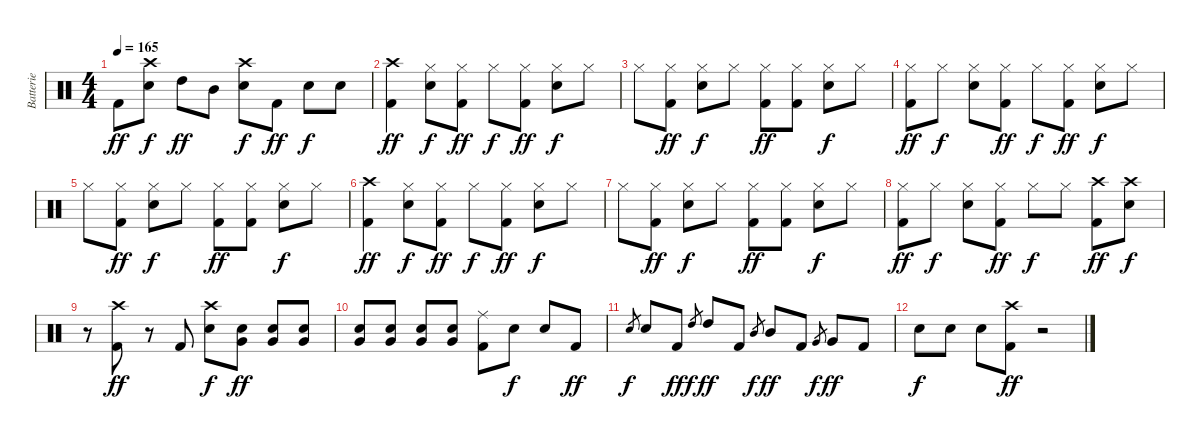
\track ("Batterie" "Batterie") {instrument percussion}
\staff {score}
\articulation defaults
\ts (4 4)
\tempo 165
\clef neutral
\ks c "Kick (hit) 2".8{dy ff}
("Crash high (hit)" "Snare (hit) 2").8{dy f} "High Tom (hit)".8{dy ff} "Mid Tom (hit)".8 ("Crash high (hit)" "Snare (hit) 2").8{dy f} "Kick (hit) 2".8{dy ff} "Snare (hit) 2".8{dy f} "Snare (hit) 2".8 |
("Crash high (hit)" "Kick (hit) 2").4{dy ff} ("Hi-Hat (closed)" "Snare (hit) 2").8{dy f} ("Hi-Hat (closed)" "Kick (hit) 2").8{dy ff} "Hi-Hat (closed)".8{dy f} ("Hi-Hat (closed)" "Kick (hit) 2").8{dy ff} ("Hi-Hat (closed)" "Snare (hit) 2").8{dy f} "Hi-Hat (closed)".8 |
"Hi-Hat (closed)".8 ("Hi-Hat (closed)" "Kick (hit) 2").8{dy ff} ("Hi-Hat (closed)" "Snare (hit) 2").8{dy f} "Hi-Hat (closed)".8 ("Hi-Hat (closed)" "Kick (hit) 2").8{dy ff} ("Hi-Hat (closed)" "Kick (hit) 2").8 ("Hi-Hat (closed)" "Snare (hit) 2").8{dy f} "Hi-Hat (closed)".8 |
("Hi-Hat (closed)" "Kick (hit) 2").8{dy ff} "Hi-Hat (closed)".8{dy f} ("Hi-Hat (closed)" "Snare (hit) 2").8 ("Hi-Hat (closed)" "Kick (hit) 2").8{dy ff} "Hi-Hat (closed)".8{dy f} ("Hi-Hat (closed)" "Kick (hit) 2").8{dy ff} ("Hi-Hat (closed)" "Snare (hit) 2").8{dy f} "Hi-Hat (closed)".8 |
"Hi-Hat (closed)".8 ("Hi-Hat (closed)" "Kick (hit) 2").8{dy ff} ("Hi-Hat (closed)" "Snare (hit) 2").8{dy f} "Hi-Hat (closed)".8 ("Hi-Hat (closed)" "Kick (hit) 2").8{dy ff} ("Hi-Hat (closed)" "Kick (hit) 2").8 ("Hi-Hat (closed)" "Snare (hit) 2").8{dy f} "Hi-Hat (closed)".8 |
("Crash high (hit)" "Kick (hit) 2").4{dy ff} ("Hi-Hat (closed)" "Snare (hit) 2").8{dy f} ("Hi-Hat (closed)" "Kick (hit) 2").8{dy ff} "Hi-Hat (closed)".8{dy f} ("Hi-Hat (closed)" "Kick (hit) 2").8{dy ff} ("Hi-Hat (closed)" "Snare (hit) 2").8{dy f} "Hi-Hat (closed)".8 |
"Hi-Hat (closed)".8 ("Hi-Hat (closed)" "Kick (hit) 2").8{dy ff} ("Hi-Hat (closed)" "Snare (hit) 2").8{dy f} "Hi-Hat (closed)".8 ("Hi-Hat (closed)" "Kick (hit) 2").8{dy ff} ("Hi-Hat (closed)" "Kick (hit) 2").8 ("Hi-Hat (closed)" "Snare (hit) 2").8{dy f} "Hi-Hat (closed)".8 |
("Hi-Hat (closed)" "Kick (hit) 2").8{dy ff} "Hi-Hat (closed)".8{dy f} ("Hi-Hat (closed)" "Snare (hit) 2").8 ("Hi-Hat (closed)" "Kick (hit) 2").8{dy ff} "Hi-Hat (closed)".8{dy f} "Hi-Hat (closed)".8 ("Crash high (hit)" "Kick (hit) 2").8{dy ff} ("Crash high (hit)" "Snare (hit) 2").8{dy f} |
r.8 ("Crash high (hit)" "Kick (hit) 2").8{dy ff} r.8 "Kick (hit) 2".8 ("Crash high (hit)" "Snare (hit) 2").8{dy f} ("Snare (hit) 2" "Very Low Tom (hit)").8{dy ff} ("Snare (hit) 2" "Very Low Tom (hit)").8 ("Snare (hit) 2" "Very Low Tom (hit)").8 |
("Snare (hit) 2" "Very Low Tom (hit)").8 ("Snare (hit) 2" "Very Low Tom (hit)").8 ("Snare (hit) 2" "Very Low Tom (hit)").8 ("Snare (hit) 2" "Very Low Tom (hit)").8 ("Ride (middle)" "Kick (hit) 2").8 "Snare (hit) 2".8{dy f} "Snare (hit) 2".8 "Kick (hit) 2".8{dy ff} |
"Snare (hit) 2".8{gr dy f} "Snare (hit) 2".8 "Kick (hit) 2".8{dy ff} "High Tom (hit)".8{gr dy f} "High Tom (hit)".8{dy ff} "Kick (hit) 2".8 "Mid Tom (hit)".8{gr dy f} "Mid Tom (hit)".8{dy ff} "Kick (hit) 2".8 "Very Low Tom (hit)".8{gr dy f} "Very Low Tom (hit)".8{dy ff} "Kick (hit) 2".8 |
"Snare (hit) 2".8{dy f} "Snare (hit) 2".8 "Snare (hit) 2".8 ("Crash high (hit)" "Kick (hit) 2").8{dy ff} r.2
